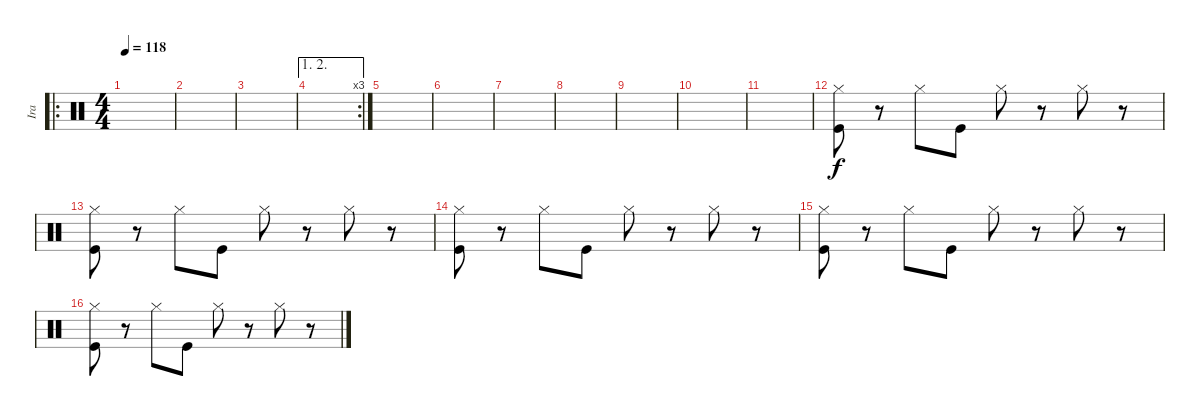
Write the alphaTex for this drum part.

\track ("Ira" "Ira") {instrument percussion}
\staff {score}
\articulation defaults
\ro
\ts (4 4)
\tempo 118
\clef neutral
\ks c
|
|
|
\ae (1 2)
\rc 3
|
|
|
|
|
|
|
|
("Hi-Hat (closed)" "Kick (hit)").8 r.8 "Hi-Hat (closed)".8 "Kick (hit)".8 "Hi-Hat (closed)".8 r.8 "Hi-Hat (closed)".8 r.8 |
("Hi-Hat (closed)" "Kick (hit)").8 r.8 "Hi-Hat (closed)".8 "Kick (hit)".8 "Hi-Hat (closed)".8 r.8 "Hi-Hat (closed)".8 r.8 |
("Hi-Hat (closed)" "Kick (hit)").8 r.8 "Hi-Hat (closed)".8 "Kick (hit)".8 "Hi-Hat (closed)".8 r.8 "Hi-Hat (closed)".8 r.8 |
("Hi-Hat (closed)" "Kick (hit)").8 r.8 "Hi-Hat (closed)".8 "Kick (hit)".8 "Hi-Hat (closed)".8 r.8 "Hi-Hat (closed)".8 r.8 |
("Hi-Hat (closed)" "Kick (hit)").8 r.8 "Hi-Hat (closed)".8 "Kick (hit)".8 "Hi-Hat (closed)".8 r.8 "Hi-Hat (closed)".8 r.8
